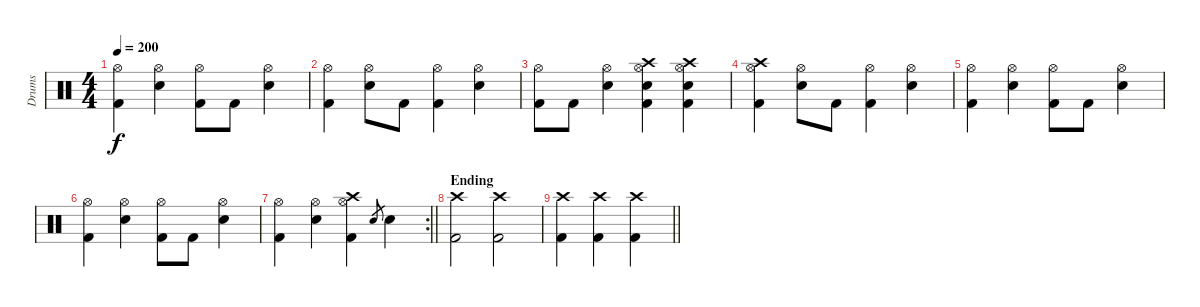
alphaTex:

\track ("Drums" "Drums") {instrument percussion}
\staff {score}
\articulation defaults
\ts (4 4)
\tempo 200
\clef neutral
\ks c
("Hi-Hat (open)" "Kick (hit) 2").4{dy f} ("Hi-Hat (open)" "Snare (hit) 2").4 ("Hi-Hat (open)" "Kick (hit) 2").8 "Kick (hit) 2".8 ("Hi-Hat (open)" "Snare (hit) 2").4 |
("Hi-Hat (open)" "Kick (hit) 2").4 ("Hi-Hat (open)" "Snare (hit) 2").8 "Kick (hit) 2".8 ("Hi-Hat (open)" "Kick (hit) 2").4 ("Hi-Hat (open)" "Snare (hit) 2").4 |
("Hi-Hat (open)" "Kick (hit) 2").8 "Kick (hit) 2".8 ("Hi-Hat (open)" "Snare (hit) 2").4 ("Crash high (hit)" "Hi-Hat (open)" "Snare (hit) 2" "Kick (hit) 2").4 ("Crash high (hit)" "Hi-Hat (open)" "Snare (hit) 2" "Kick (hit) 2").4 |
("Crash high (hit)" "Hi-Hat (open)" "Kick (hit) 2").4 ("Hi-Hat (open)" "Snare (hit) 2").8 "Kick (hit) 2".8 ("Hi-Hat (open)" "Kick (hit) 2").4 ("Hi-Hat (open)" "Snare (hit) 2").4 |
("Hi-Hat (open)" "Kick (hit) 2").4 ("Hi-Hat (open)" "Snare (hit) 2").4 ("Hi-Hat (open)" "Kick (hit) 2").8 "Kick (hit) 2".8 ("Hi-Hat (open)" "Snare (hit) 2").4 |
("Hi-Hat (open)" "Kick (hit) 2").4 ("Hi-Hat (open)" "Snare (hit) 2").4 ("Hi-Hat (open)" "Kick (hit) 2").8 "Kick (hit) 2".8 ("Hi-Hat (open)" "Snare (hit) 2").4 |
\rc 2
\barLineRight lightlight
("Hi-Hat (open)" "Kick (hit) 2").4 ("Hi-Hat (open)" "Snare (hit) 2").4 ("Crash high (hit)" "Hi-Hat (open)" "Kick (hit) 2").4 "Snare (hit) 2".8{gr} "Snare (hit) 2".4 |
\section ("" "Ending")
("Crash high (hit)" "Kick (hit) 2").2 ("Crash high (hit)" "Kick (hit) 2").2 |
\barLineRight lightlight
("Crash high (hit)" "Kick (hit) 2").4 ("Crash high (hit)" "Kick (hit) 2").4 ("Crash high (hit)" "Kick (hit) 2").4
